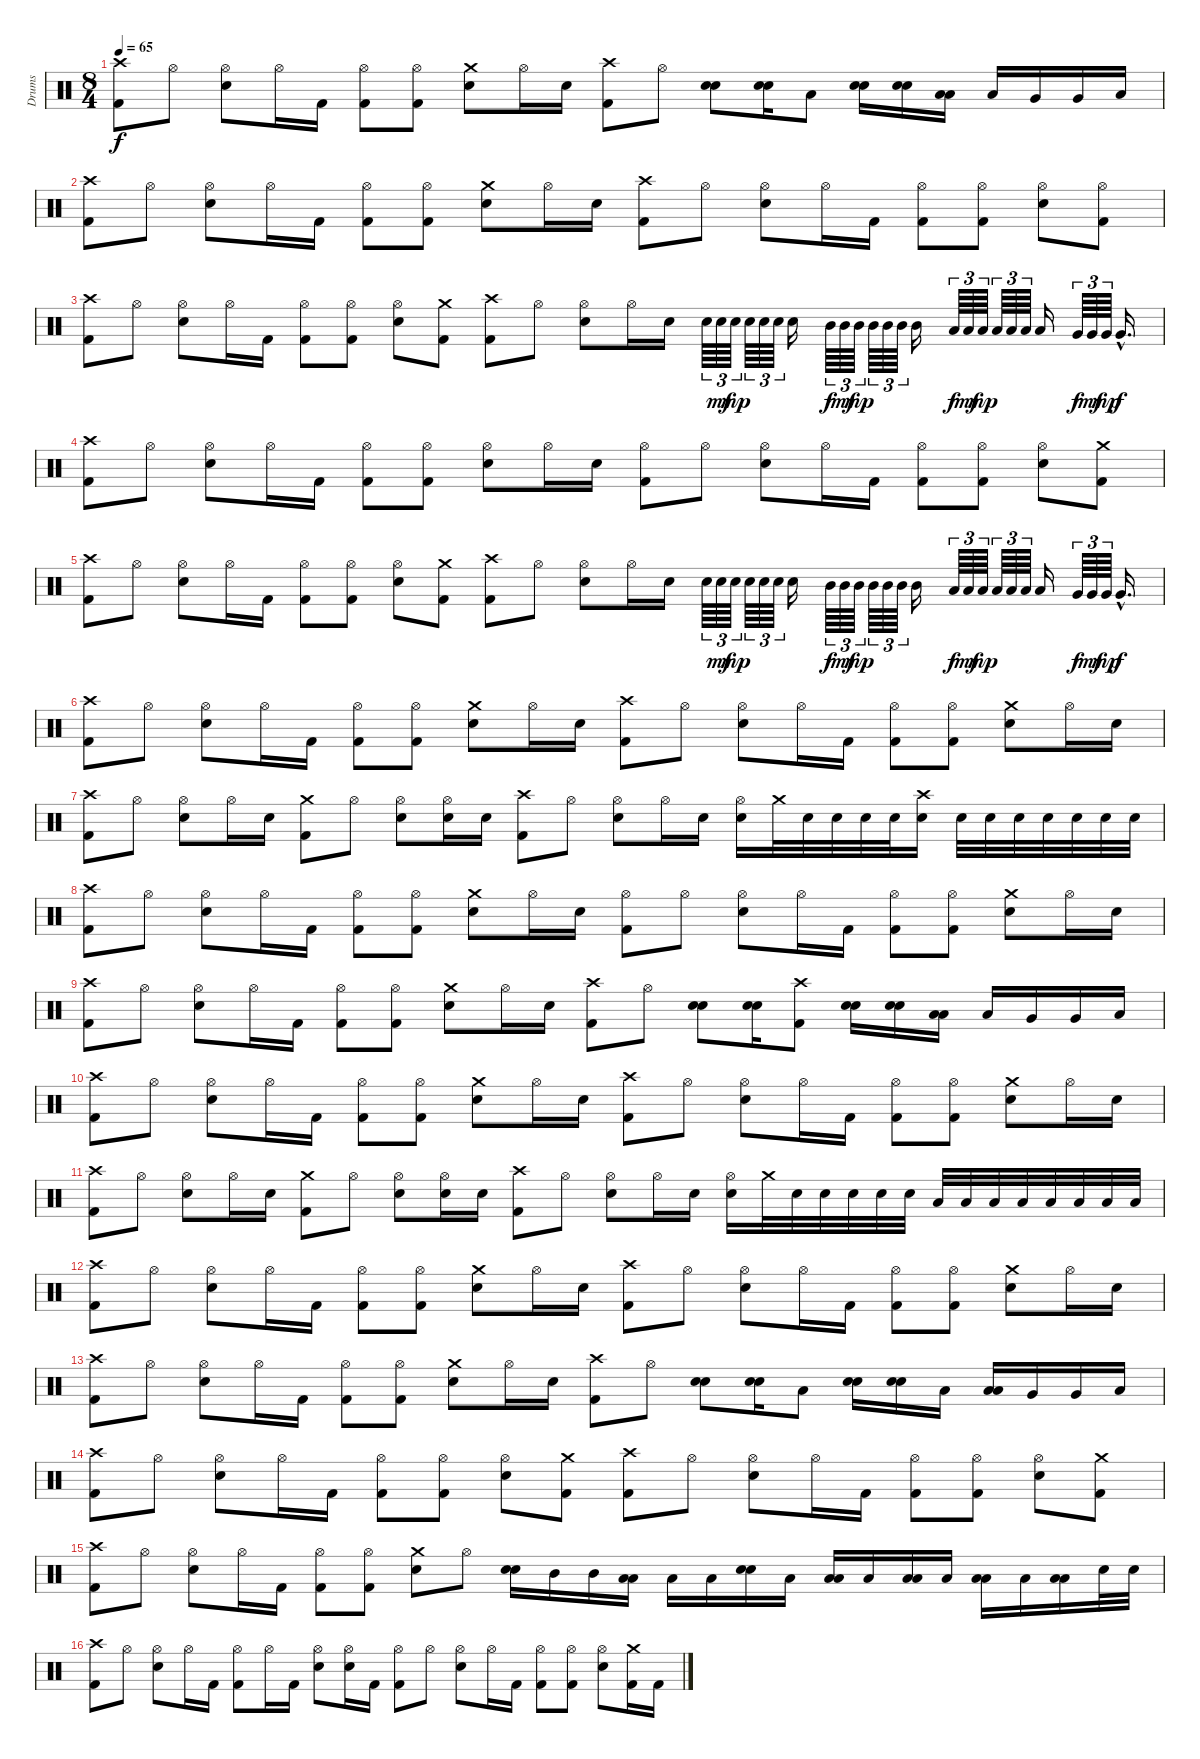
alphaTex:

\track ("Drums" "Drums") {instrument percussion}
\staff {score}
\articulation defaults
\ts (8 4)
\tempo 65
\clef neutral
\ks c
("Crash high (hit)" "Kick (hit) 2").8{dy f} "Hi-Hat (open)".8 ("Hi-Hat (open)" "Electric Snare (hit)").8 "Hi-Hat (open)".16 "Kick (hit) 2".16 ("Hi-Hat (open)" "Kick (hit) 2").8 ("Hi-Hat (open)" "Kick (hit) 2").8 ("Crash medium (hit)" "Electric Snare (hit)").8 "Hi-Hat (open)".16 "Electric Snare (hit)".16 ("Crash high (hit)" "Kick (hit) 2").8 "Hi-Hat (open)".8 ("Electric Snare (hit)" "Electric Snare (hit)").8{bu 60} ("Electric Snare (hit)" "Electric Snare (hit)").16{bu 60} "Low Tom (hit)".8 ("Electric Snare (hit)" "Electric Snare (hit)").16{bu 60} ("Electric Snare (hit)" "Electric Snare (hit)").16{bu 60} ("Low Tom (hit)" "Low Tom (hit)").16{bu 60} "Low Tom (hit)".16 "Very Low Tom (hit)".16 "Very Low Tom (hit)".16 "Low Tom (hit)".16 |
("Crash high (hit)" "Kick (hit) 2").8 "Hi-Hat (open)".8 ("Hi-Hat (open)" "Electric Snare (hit)").8 "Hi-Hat (open)".16 "Kick (hit) 2".16 ("Hi-Hat (open)" "Kick (hit) 2").8 ("Hi-Hat (open)" "Kick (hit) 2").8 ("Crash medium (hit)" "Electric Snare (hit)").8 "Hi-Hat (open)".16 "Electric Snare (hit)".16 ("Crash high (hit)" "Kick (hit) 2").8 "Hi-Hat (open)".8 ("Hi-Hat (open)" "Electric Snare (hit)").8 "Hi-Hat (open)".16 "Kick (hit) 2".16 ("Hi-Hat (open)" "Kick (hit) 2").8 ("Hi-Hat (open)" "Kick (hit) 2").8 ("Hi-Hat (open)" "Electric Snare (hit)").8 ("Hi-Hat (open)" "Kick (hit) 2").8 |
("Crash high (hit)" "Kick (hit) 2").8 "Hi-Hat (open)".8 ("Hi-Hat (open)" "Electric Snare (hit)").8 "Hi-Hat (open)".16 "Kick (hit) 2".16 ("Hi-Hat (open)" "Kick (hit) 2").8 ("Hi-Hat (open)" "Kick (hit) 2").8 ("Hi-Hat (open)" "Electric Snare (hit)").8 ("Crash medium (hit)" "Kick (hit) 2").8 ("Crash high (hit)" "Kick (hit) 2").8 "Hi-Hat (open)".8 ("Hi-Hat (open)" "Electric Snare (hit)").8 "Hi-Hat (open)".16 "Electric Snare (hit)".16 "Electric Snare (hit)".64{tu (3 2)} "Electric Snare (hit)".64{tu (3 2) dy mf} "Electric Snare (hit)".64{tu (3 2) dy mp} "Electric Snare (hit)".64{tu (3 2)} "Electric Snare (hit)".64{tu (3 2)} "Electric Snare (hit)".64{tu (3 2)} "Electric Snare (hit)".16 "Mid Tom (hit)".64{tu (3 2) dy f} "Mid Tom (hit)".64{tu (3 2) dy mf} "Mid Tom (hit)".64{tu (3 2) dy mp} "Mid Tom (hit)".64{tu (3 2)} "Mid Tom (hit)".64{tu (3 2)} "Mid Tom (hit)".64{tu (3 2)} "Mid Tom (hit)".16 "Low Tom (hit)".64{tu (3 2) dy f} "Low Tom (hit)".64{tu (3 2) dy mf} "Low Tom (hit)".64{tu (3 2) dy mp} "Low Tom (hit)".64{tu (3 2)} "Low Tom (hit)".64{tu (3 2)} "Low Tom (hit)".64{tu (3 2)} "Low Tom (hit)".16 "Very Low Tom (hit)".64{tu (3 2) dy f} "Very Low Tom (hit)".64{tu (3 2) dy mf} "Very Low Tom (hit)".64{tu (3 2) dy mp} "Very Low Tom (hit)"{hac}.16{d dy f} |
("Crash high (hit)" "Kick (hit) 2").8 "Hi-Hat (open)".8 ("Hi-Hat (open)" "Electric Snare (hit)").8 "Hi-Hat (open)".16 "Kick (hit) 2".16 ("Hi-Hat (open)" "Kick (hit) 2").8 ("Hi-Hat (open)" "Kick (hit) 2").8 ("Hi-Hat (open)" "Electric Snare (hit)").8 "Hi-Hat (open)".16 "Electric Snare (hit)".16 ("Hi-Hat (open)" "Kick (hit) 2").8 "Hi-Hat (open)".8 ("Hi-Hat (open)" "Electric Snare (hit)").8 "Hi-Hat (open)".16 "Kick (hit) 2".16 ("Hi-Hat (open)" "Kick (hit) 2").8 ("Hi-Hat (open)" "Kick (hit) 2").8 ("Hi-Hat (open)" "Electric Snare (hit)").8 ("Crash medium (hit)" "Kick (hit) 2").8 |
("Crash high (hit)" "Kick (hit) 2").8 "Hi-Hat (open)".8 ("Hi-Hat (open)" "Electric Snare (hit)").8 "Hi-Hat (open)".16 "Kick (hit) 2".16 ("Hi-Hat (open)" "Kick (hit) 2").8 ("Hi-Hat (open)" "Kick (hit) 2").8 ("Hi-Hat (open)" "Electric Snare (hit)").8 ("Crash medium (hit)" "Kick (hit) 2").8 ("Crash high (hit)" "Kick (hit) 2").8 "Hi-Hat (open)".8 ("Hi-Hat (open)" "Electric Snare (hit)").8 "Hi-Hat (open)".16 "Electric Snare (hit)".16 "Electric Snare (hit)".64{tu (3 2)} "Electric Snare (hit)".64{tu (3 2) dy mf} "Electric Snare (hit)".64{tu (3 2) dy mp} "Electric Snare (hit)".64{tu (3 2)} "Electric Snare (hit)".64{tu (3 2)} "Electric Snare (hit)".64{tu (3 2)} "Electric Snare (hit)".16 "Mid Tom (hit)".64{tu (3 2) dy f} "Mid Tom (hit)".64{tu (3 2) dy mf} "Mid Tom (hit)".64{tu (3 2) dy mp} "Mid Tom (hit)".64{tu (3 2)} "Mid Tom (hit)".64{tu (3 2)} "Mid Tom (hit)".64{tu (3 2)} "Mid Tom (hit)".16 "Low Tom (hit)".64{tu (3 2) dy f} "Low Tom (hit)".64{tu (3 2) dy mf} "Low Tom (hit)".64{tu (3 2) dy mp} "Low Tom (hit)".64{tu (3 2)} "Low Tom (hit)".64{tu (3 2)} "Low Tom (hit)".64{tu (3 2)} "Low Tom (hit)".16 "Very Low Tom (hit)".64{tu (3 2) dy f} "Very Low Tom (hit)".64{tu (3 2) dy mf} "Very Low Tom (hit)".64{tu (3 2) dy mp} "Very Low Tom (hit)"{hac}.16{d dy f} |
("Crash high (hit)" "Kick (hit) 2").8 "Hi-Hat (open)".8 ("Hi-Hat (open)" "Electric Snare (hit)").8 "Hi-Hat (open)".16 "Kick (hit) 2".16 ("Hi-Hat (open)" "Kick (hit) 2").8 ("Hi-Hat (open)" "Kick (hit) 2").8 ("Crash medium (hit)" "Electric Snare (hit)").8 "Hi-Hat (open)".16 "Electric Snare (hit)".16 ("Crash high (hit)" "Kick (hit) 2").8 "Hi-Hat (open)".8 ("Hi-Hat (open)" "Electric Snare (hit)").8 "Hi-Hat (open)".16 "Kick (hit) 2".16 ("Hi-Hat (open)" "Kick (hit) 2").8 ("Hi-Hat (open)" "Kick (hit) 2").8 ("Crash medium (hit)" "Electric Snare (hit)").8 "Hi-Hat (open)".16 "Electric Snare (hit)".16 |
("Crash high (hit)" "Kick (hit) 2").8 "Hi-Hat (open)".8 ("Hi-Hat (open)" "Electric Snare (hit)").8 "Hi-Hat (open)".16 "Electric Snare (hit)".16 ("Crash medium (hit)" "Kick (hit) 2").8 "Hi-Hat (open)".8 ("Hi-Hat (open)" "Electric Snare (hit)").8 ("Hi-Hat (open)" "Electric Snare (hit)").16 "Electric Snare (hit)".16 ("Crash high (hit)" "Kick (hit) 2").8 "Hi-Hat (open)".8 ("Hi-Hat (open)" "Electric Snare (hit)").8 "Hi-Hat (open)".16 "Electric Snare (hit)".16 ("Hi-Hat (open)" "Electric Snare (hit)").16 "Crash medium (hit)".32 "Electric Snare (hit)".32 "Electric Snare (hit)".32 "Electric Snare (hit)".32 "Electric Snare (hit)".32 ("Crash high (hit)" "Electric Snare (hit)").16 "Electric Snare (hit)".32 "Electric Snare (hit)".32 "Electric Snare (hit)".32 "Electric Snare (hit)".32 "Electric Snare (hit)".32 "Electric Snare (hit)".32 "Electric Snare (hit)".32 |
("Crash high (hit)" "Kick (hit) 2").8 "Hi-Hat (open)".8 ("Hi-Hat (open)" "Electric Snare (hit)").8 "Hi-Hat (open)".16 "Kick (hit) 2".16 ("Hi-Hat (open)" "Kick (hit) 2").8 ("Hi-Hat (open)" "Kick (hit) 2").8 ("Crash medium (hit)" "Electric Snare (hit)").8 "Hi-Hat (open)".16 "Electric Snare (hit)".16 ("Hi-Hat (open)" "Kick (hit) 2").8 "Hi-Hat (open)".8 ("Hi-Hat (open)" "Electric Snare (hit)").8 "Hi-Hat (open)".16 "Kick (hit) 2".16 ("Hi-Hat (open)" "Kick (hit) 2").8 ("Hi-Hat (open)" "Kick (hit) 2").8 ("Crash medium (hit)" "Electric Snare (hit)").8 "Hi-Hat (open)".16 "Electric Snare (hit)".16 |
("Crash high (hit)" "Kick (hit) 2").8 "Hi-Hat (open)".8 ("Hi-Hat (open)" "Electric Snare (hit)").8 "Hi-Hat (open)".16 "Kick (hit) 2".16 ("Hi-Hat (open)" "Kick (hit) 2").8 ("Hi-Hat (open)" "Kick (hit) 2").8 ("Crash medium (hit)" "Electric Snare (hit)").8 "Hi-Hat (open)".16 "Electric Snare (hit)".16 ("Crash high (hit)" "Kick (hit) 2").8 "Hi-Hat (open)".8 ("Electric Snare (hit)" "Electric Snare (hit)").8{bu 60} ("Electric Snare (hit)" "Electric Snare (hit)").16{bu 60} ("Crash high (hit)" "Kick (hit) 2").8 ("Electric Snare (hit)" "Electric Snare (hit)").16{bu 60} ("Electric Snare (hit)" "Electric Snare (hit)").16{bu 60} ("Low Tom (hit)" "Low Tom (hit)").16{bu 60} "Low Tom (hit)".16 "Very Low Tom (hit)".16 "Very Low Tom (hit)".16 "Low Tom (hit)".16 |
("Crash high (hit)" "Kick (hit) 2").8 "Hi-Hat (open)".8 ("Hi-Hat (open)" "Electric Snare (hit)").8 "Hi-Hat (open)".16 "Kick (hit) 2".16 ("Hi-Hat (open)" "Kick (hit) 2").8 ("Hi-Hat (open)" "Kick (hit) 2").8 ("Crash medium (hit)" "Electric Snare (hit)").8 "Hi-Hat (open)".16 "Electric Snare (hit)".16 ("Crash high (hit)" "Kick (hit) 2").8 "Hi-Hat (open)".8 ("Hi-Hat (open)" "Electric Snare (hit)").8 "Hi-Hat (open)".16 "Kick (hit) 2".16 ("Hi-Hat (open)" "Kick (hit) 2").8 ("Hi-Hat (open)" "Kick (hit) 2").8 ("Crash medium (hit)" "Electric Snare (hit)").8 "Hi-Hat (open)".16 "Electric Snare (hit)".16 |
("Crash high (hit)" "Kick (hit) 2").8 "Hi-Hat (open)".8 ("Hi-Hat (open)" "Electric Snare (hit)").8 "Hi-Hat (open)".16 "Electric Snare (hit)".16 ("Crash medium (hit)" "Kick (hit) 2").8 "Hi-Hat (open)".8 ("Hi-Hat (open)" "Electric Snare (hit)").8 ("Hi-Hat (open)" "Electric Snare (hit)").16 "Electric Snare (hit)".16 ("Crash high (hit)" "Kick (hit) 2").8 "Hi-Hat (open)".8 ("Hi-Hat (open)" "Electric Snare (hit)").8 "Hi-Hat (open)".16 "Electric Snare (hit)".16 ("Hi-Hat (open)" "Electric Snare (hit)").16 "Crash medium (hit)".32 "Electric Snare (hit)".32 "Electric Snare (hit)".32 "Electric Snare (hit)".32 "Electric Snare (hit)".32 "Electric Snare (hit)".32 "Low Tom (hit)".32 "Low Tom (hit)".32 "Low Tom (hit)".32 "Low Tom (hit)".32 "Low Tom (hit)".32 "Low Tom (hit)".32 "Low Tom (hit)".32 "Low Tom (hit)".32 |
("Crash high (hit)" "Kick (hit) 2").8 "Hi-Hat (open)".8 ("Hi-Hat (open)" "Electric Snare (hit)").8 "Hi-Hat (open)".16 "Kick (hit) 2".16 ("Hi-Hat (open)" "Kick (hit) 2").8 ("Hi-Hat (open)" "Kick (hit) 2").8 ("Crash medium (hit)" "Electric Snare (hit)").8 "Hi-Hat (open)".16 "Electric Snare (hit)".16 ("Crash high (hit)" "Kick (hit) 2").8 "Hi-Hat (open)".8 ("Hi-Hat (open)" "Electric Snare (hit)").8 "Hi-Hat (open)".16 "Kick (hit) 2".16 ("Hi-Hat (open)" "Kick (hit) 2").8 ("Hi-Hat (open)" "Kick (hit) 2").8 ("Crash medium (hit)" "Electric Snare (hit)").8 "Hi-Hat (open)".16 "Electric Snare (hit)".16 |
("Crash high (hit)" "Kick (hit) 2").8 "Hi-Hat (open)".8 ("Hi-Hat (open)" "Electric Snare (hit)").8 "Hi-Hat (open)".16 "Kick (hit) 2".16 ("Hi-Hat (open)" "Kick (hit) 2").8 ("Hi-Hat (open)" "Kick (hit) 2").8 ("Crash medium (hit)" "Electric Snare (hit)").8 "Hi-Hat (open)".16 "Electric Snare (hit)".16 ("Crash high (hit)" "Kick (hit) 2").8 "Hi-Hat (open)".8 ("Electric Snare (hit)" "Electric Snare (hit)").8{bu 60} ("Electric Snare (hit)" "Electric Snare (hit)").16{bu 60} "Low Tom (hit)".8 ("Electric Snare (hit)" "Electric Snare (hit)").16{bu 60} ("Electric Snare (hit)" "Electric Snare (hit)").16{bu 60} "Low Tom (hit)".16 ("Low Tom (hit)" "Low Tom (hit)").16{bu 60} "Very Low Tom (hit)".16 "Very Low Tom (hit)".16 "Low Tom (hit)".16 |
("Crash high (hit)" "Kick (hit) 2").8 "Hi-Hat (open)".8 ("Hi-Hat (open)" "Electric Snare (hit)").8 "Hi-Hat (open)".16 "Kick (hit) 2".16 ("Hi-Hat (open)" "Kick (hit) 2").8 ("Hi-Hat (open)" "Kick (hit) 2").8 ("Hi-Hat (open)" "Electric Snare (hit)").8 ("Crash medium (hit)" "Kick (hit) 2").8 ("Crash high (hit)" "Kick (hit) 2").8 "Hi-Hat (open)".8 ("Hi-Hat (open)" "Electric Snare (hit)").8 "Hi-Hat (open)".16 "Kick (hit) 2".16 ("Hi-Hat (open)" "Kick (hit) 2").8 ("Hi-Hat (open)" "Kick (hit) 2").8 ("Hi-Hat (open)" "Electric Snare (hit)").8 ("Crash medium (hit)" "Kick (hit) 2").8 |
("Crash high (hit)" "Kick (hit) 2").8 "Hi-Hat (open)".8 ("Hi-Hat (open)" "Electric Snare (hit)").8 "Hi-Hat (open)".16 "Kick (hit) 2".16 ("Hi-Hat (open)" "Kick (hit) 2").8 ("Hi-Hat (open)" "Kick (hit) 2").8 ("Crash medium (hit)" "Electric Snare (hit)").8 "Hi-Hat (open)".8 ("Electric Snare (hit)" "Electric Snare (hit)").16{bu 120} "Mid Tom (hit)".16 "Mid Tom (hit)".16 ("Low Tom (hit)" "Low Tom (hit)").16{bu 120} "Low Tom (hit)".16 "Low Tom (hit)".16 ("Electric Snare (hit)" "Electric Snare (hit)").16{bu 120} "Low Tom (hit)".16 ("Low Tom (hit)" "Low Tom (hit)").16{bu 120} "Low Tom (hit)".16 ("Low Tom (hit)" "Low Tom (hit)").16{bu 120} "Low Tom (hit)".16 ("Low Tom (hit)" "Low Tom (hit)").16{bu 120} "Low Tom (hit)".16 ("Low Tom (hit)" "Low Tom (hit)").16{bu 120} "Electric Snare (hit)".32 "Electric Snare (hit)".32 |
("Crash high (hit)" "Kick (hit) 2").8 "Hi-Hat (open)".8 ("Hi-Hat (open)" "Electric Snare (hit)").8 "Hi-Hat (open)".16 "Kick (hit) 2".16 ("Hi-Hat (open)" "Kick (hit) 2").8 "Hi-Hat (open)".16 "Kick (hit) 2".16 ("Hi-Hat (open)" "Electric Snare (hit)").8 ("Hi-Hat (open)" "Electric Snare (hit)").16 "Kick (hit) 2".16 ("Hi-Hat (open)" "Kick (hit) 2").8 "Hi-Hat (open)".8 ("Hi-Hat (open)" "Electric Snare (hit)").8 "Hi-Hat (open)".16 "Kick (hit) 2".16 ("Hi-Hat (open)" "Kick (hit) 2").8 ("Hi-Hat (open)" "Kick (hit) 2").8 ("Hi-Hat (open)" "Electric Snare (hit)").8 ("Crash medium (hit)" "Kick (hit) 2").16 "Kick (hit) 2".16
